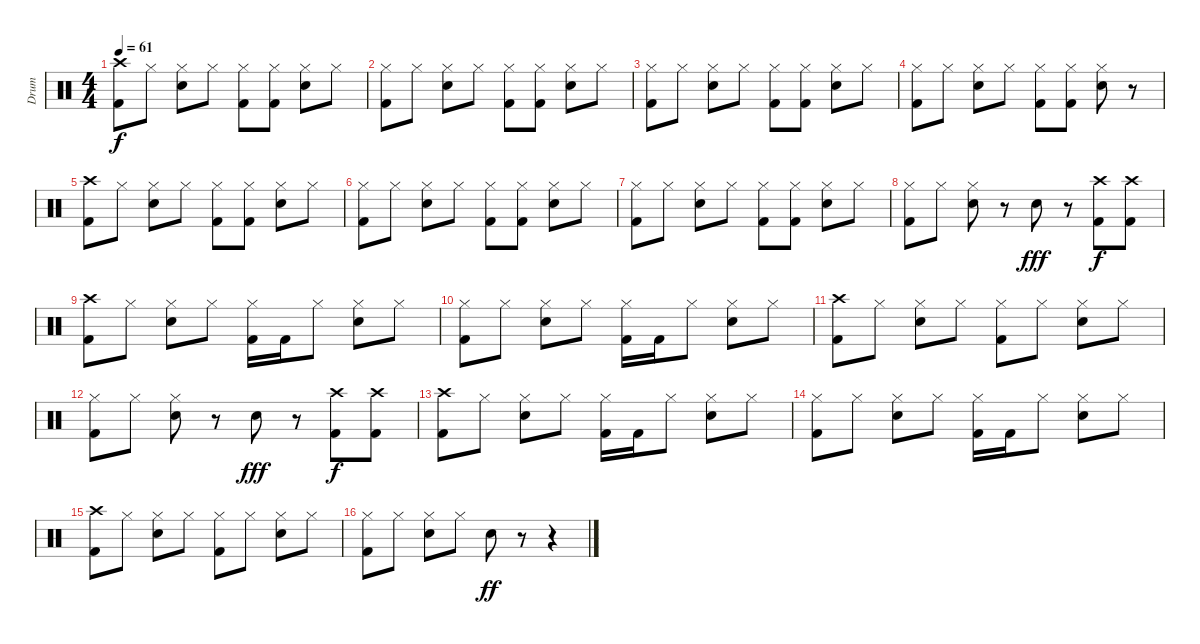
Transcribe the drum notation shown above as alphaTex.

\track ("Drum" "Drum") {instrument percussion}
\staff {score}
\articulation defaults
\ts (4 4)
\tempo 61
\clef neutral
\ks c
("Crash high (hit)" "Kick (hit) 2").8{dy f} "Hi-Hat (closed)".8 ("Hi-Hat (closed)" "Snare (hit) 2").8 "Hi-Hat (closed)".8 ("Hi-Hat (closed)" "Kick (hit) 2").8 ("Hi-Hat (closed)" "Kick (hit) 2").8 ("Hi-Hat (closed)" "Snare (hit) 2").8 "Hi-Hat (closed)".8 |
("Hi-Hat (closed)" "Kick (hit) 2").8 "Hi-Hat (closed)".8 ("Hi-Hat (closed)" "Snare (hit) 2").8 "Hi-Hat (closed)".8 ("Hi-Hat (closed)" "Kick (hit) 2").8 ("Hi-Hat (closed)" "Kick (hit) 2").8 ("Hi-Hat (closed)" "Snare (hit) 2").8 "Hi-Hat (closed)".8 |
("Hi-Hat (closed)" "Kick (hit) 2").8 "Hi-Hat (closed)".8 ("Hi-Hat (closed)" "Snare (hit) 2").8 "Hi-Hat (closed)".8 ("Hi-Hat (closed)" "Kick (hit) 2").8 ("Hi-Hat (closed)" "Kick (hit) 2").8 ("Hi-Hat (closed)" "Snare (hit) 2").8 "Hi-Hat (closed)".8 |
("Hi-Hat (closed)" "Kick (hit) 2").8 "Hi-Hat (closed)".8 ("Hi-Hat (closed)" "Snare (hit) 2").8 "Hi-Hat (closed)".8 ("Hi-Hat (closed)" "Kick (hit) 2").8 ("Hi-Hat (closed)" "Kick (hit) 2").8 ("Hi-Hat (closed)" "Snare (hit) 2").8 r.8 |
("Crash high (hit)" "Kick (hit) 2").8 "Hi-Hat (closed)".8 ("Hi-Hat (closed)" "Snare (hit) 2").8 "Hi-Hat (closed)".8 ("Hi-Hat (closed)" "Kick (hit) 2").8 ("Hi-Hat (closed)" "Kick (hit) 2").8 ("Hi-Hat (closed)" "Snare (hit) 2").8 "Hi-Hat (closed)".8 |
("Hi-Hat (closed)" "Kick (hit) 2").8 "Hi-Hat (closed)".8 ("Hi-Hat (closed)" "Snare (hit) 2").8 "Hi-Hat (closed)".8 ("Hi-Hat (closed)" "Kick (hit) 2").8 ("Hi-Hat (closed)" "Kick (hit) 2").8 ("Hi-Hat (closed)" "Snare (hit) 2").8 "Hi-Hat (closed)".8 |
("Hi-Hat (closed)" "Kick (hit) 2").8 "Hi-Hat (closed)".8 ("Hi-Hat (closed)" "Snare (hit) 2").8 "Hi-Hat (closed)".8 ("Hi-Hat (closed)" "Kick (hit) 2").8 ("Hi-Hat (closed)" "Kick (hit) 2").8 ("Hi-Hat (closed)" "Snare (hit) 2").8 "Hi-Hat (closed)".8 |
("Hi-Hat (closed)" "Kick (hit) 2").8 "Hi-Hat (closed)".8 ("Hi-Hat (closed)" "Snare (hit) 2").8 r.8 "Snare (hit) 2".8{dy fff} r.8 ("Crash high (hit)" "Kick (hit) 2").8{dy f} ("Crash high (hit)" "Kick (hit) 2").8 |
("Crash high (hit)" "Kick (hit) 2").8 "Hi-Hat (closed)".8 ("Hi-Hat (closed)" "Snare (hit) 2").8 "Hi-Hat (closed)".8 ("Hi-Hat (closed)" "Kick (hit) 2").16 "Kick (hit) 2".16 "Hi-Hat (closed)".8 ("Hi-Hat (closed)" "Snare (hit) 2").8 "Hi-Hat (closed)".8 |
("Hi-Hat (closed)" "Kick (hit) 2").8 "Hi-Hat (closed)".8 ("Hi-Hat (closed)" "Snare (hit) 2").8 "Hi-Hat (closed)".8 ("Hi-Hat (closed)" "Kick (hit) 2").16 "Kick (hit) 2".16 "Hi-Hat (closed)".8 ("Hi-Hat (closed)" "Snare (hit) 2").8 "Hi-Hat (closed)".8 |
("Crash high (hit)" "Kick (hit) 2").8 "Hi-Hat (closed)".8 ("Hi-Hat (closed)" "Snare (hit) 2").8 "Hi-Hat (closed)".8 ("Hi-Hat (closed)" "Kick (hit) 2").8 "Hi-Hat (closed)".8 ("Hi-Hat (closed)" "Snare (hit) 2").8 "Hi-Hat (closed)".8 |
("Hi-Hat (closed)" "Kick (hit) 2").8 "Hi-Hat (closed)".8 ("Hi-Hat (closed)" "Snare (hit) 2").8 r.8 "Snare (hit) 2".8{dy fff} r.8 ("Crash high (hit)" "Kick (hit) 2").8{dy f} ("Crash high (hit)" "Kick (hit) 2").8 |
("Crash high (hit)" "Kick (hit) 2").8 "Hi-Hat (closed)".8 ("Hi-Hat (closed)" "Snare (hit) 2").8 "Hi-Hat (closed)".8 ("Hi-Hat (closed)" "Kick (hit) 2").16 "Kick (hit) 2".16 "Hi-Hat (closed)".8 ("Hi-Hat (closed)" "Snare (hit) 2").8 "Hi-Hat (closed)".8 |
("Hi-Hat (closed)" "Kick (hit) 2").8 "Hi-Hat (closed)".8 ("Hi-Hat (closed)" "Snare (hit) 2").8 "Hi-Hat (closed)".8 ("Hi-Hat (closed)" "Kick (hit) 2").16 "Kick (hit) 2".16 "Hi-Hat (closed)".8 ("Hi-Hat (closed)" "Snare (hit) 2").8 "Hi-Hat (closed)".8 |
("Crash high (hit)" "Kick (hit) 2").8 "Hi-Hat (closed)".8 ("Hi-Hat (closed)" "Snare (hit) 2").8 "Hi-Hat (closed)".8 ("Hi-Hat (closed)" "Kick (hit) 2").8 "Hi-Hat (closed)".8 ("Hi-Hat (closed)" "Snare (hit) 2").8 "Hi-Hat (closed)".8 |
("Hi-Hat (closed)" "Kick (hit) 2").8 "Hi-Hat (closed)".8 ("Hi-Hat (closed)" "Snare (hit) 2").8 "Hi-Hat (closed)".8 "Snare (hit) 2".8{dy ff} r.8 r.4
